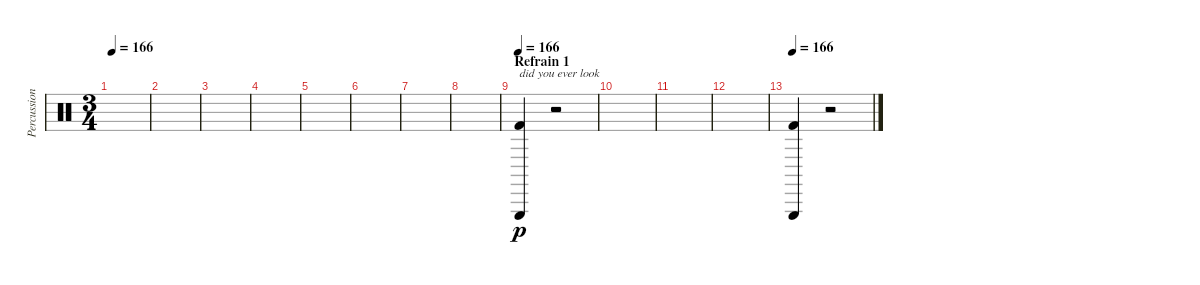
\track ("Percussion" "Percussion") {instrument percussion}
\staff {score}
\articulation defaults
\ts (3 4)
\tempo 166
\clef neutral
\ks c
|
|
|
|
|
|
|
|
\section ("" "Refrain 1")
\tempo 166
("Triangle (hit)" "Kick (hit) 2").4{txt "did you ever look" dy p} r.2 |
|
|
|
\tempo 166
("Triangle (hit)" "Kick (hit) 2").4 r.2
